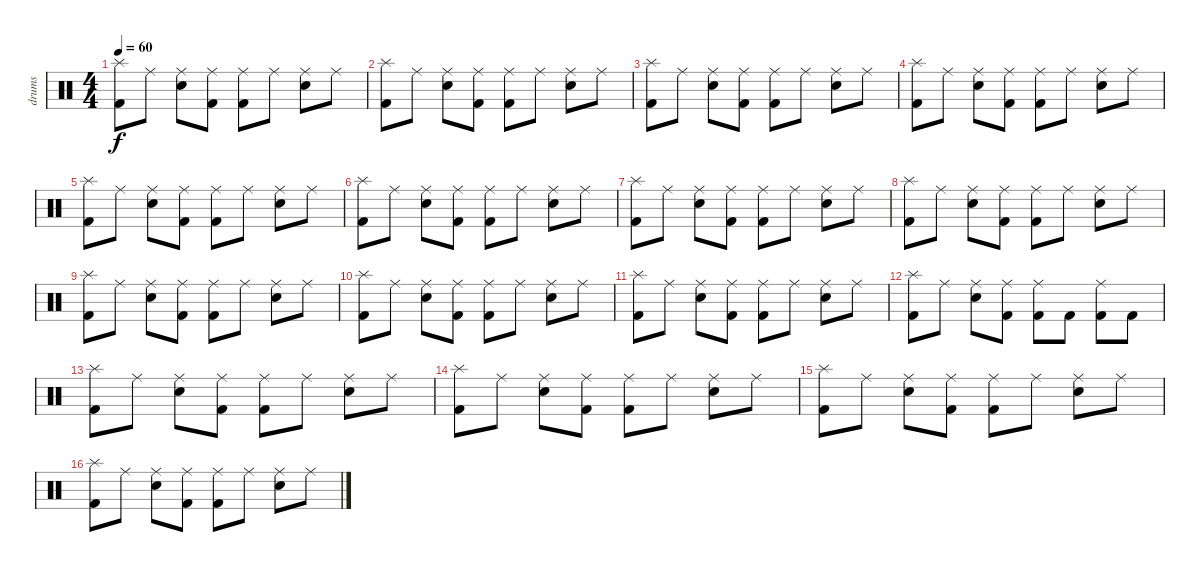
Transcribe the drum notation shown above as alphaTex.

\track ("drums" "drums") {instrument percussion}
\staff {score}
\articulation defaults
\ts (4 4)
\tempo 60
\clef neutral
\ks c
("Splash (hit)" "Kick (hit) 2").8{dy f} "Ride (middle)".8 ("Ride (middle)" "Electric Snare (hit)").8 ("Ride (middle)" "Kick (hit) 2").8 ("Ride (middle)" "Kick (hit) 2").8 "Ride (middle)".8 ("Ride (middle)" "Electric Snare (hit)").8 "Ride (middle)".8 |
("Splash (hit)" "Kick (hit) 2").8 "Ride (middle)".8 ("Ride (middle)" "Electric Snare (hit)").8 ("Ride (middle)" "Kick (hit) 2").8 ("Ride (middle)" "Kick (hit) 2").8 "Ride (middle)".8 ("Ride (middle)" "Electric Snare (hit)").8 "Ride (middle)".8 |
("Splash (hit)" "Kick (hit) 2").8 "Ride (middle)".8 ("Ride (middle)" "Electric Snare (hit)").8 ("Ride (middle)" "Kick (hit) 2").8 ("Ride (middle)" "Kick (hit) 2").8 "Ride (middle)".8 ("Ride (middle)" "Electric Snare (hit)").8 "Ride (middle)".8 |
("Splash (hit)" "Kick (hit) 2").8 "Ride (middle)".8 ("Ride (middle)" "Electric Snare (hit)").8 ("Ride (middle)" "Kick (hit) 2").8 ("Ride (middle)" "Kick (hit) 2").8 "Ride (middle)".8 ("Ride (middle)" "Electric Snare (hit)").8 "Ride (middle)".8 |
("Splash (hit)" "Kick (hit) 2").8 "Ride (middle)".8 ("Ride (middle)" "Electric Snare (hit)").8 ("Ride (middle)" "Kick (hit) 2").8 ("Ride (middle)" "Kick (hit) 2").8 "Ride (middle)".8 ("Ride (middle)" "Electric Snare (hit)").8 "Ride (middle)".8 |
("Splash (hit)" "Kick (hit) 2").8 "Ride (middle)".8 ("Ride (middle)" "Electric Snare (hit)").8 ("Ride (middle)" "Kick (hit) 2").8 ("Ride (middle)" "Kick (hit) 2").8 "Ride (middle)".8 ("Ride (middle)" "Electric Snare (hit)").8 "Ride (middle)".8 |
("Splash (hit)" "Kick (hit) 2").8 "Ride (middle)".8 ("Ride (middle)" "Electric Snare (hit)").8 ("Ride (middle)" "Kick (hit) 2").8 ("Ride (middle)" "Kick (hit) 2").8 "Ride (middle)".8 ("Ride (middle)" "Electric Snare (hit)").8 "Ride (middle)".8 |
("Splash (hit)" "Kick (hit) 2").8 "Ride (middle)".8 ("Ride (middle)" "Electric Snare (hit)").8 ("Ride (middle)" "Kick (hit) 2").8 ("Ride (middle)" "Kick (hit) 2").8 "Ride (middle)".8 ("Ride (middle)" "Electric Snare (hit)").8 "Ride (middle)".8 |
("Splash (hit)" "Kick (hit) 2").8 "Ride (middle)".8 ("Ride (middle)" "Electric Snare (hit)").8 ("Ride (middle)" "Kick (hit) 2").8 ("Ride (middle)" "Kick (hit) 2").8 "Ride (middle)".8 ("Ride (middle)" "Electric Snare (hit)").8 "Ride (middle)".8 |
("Splash (hit)" "Kick (hit) 2").8 "Ride (middle)".8 ("Ride (middle)" "Electric Snare (hit)").8 ("Ride (middle)" "Kick (hit) 2").8 ("Ride (middle)" "Kick (hit) 2").8 "Ride (middle)".8 ("Ride (middle)" "Electric Snare (hit)").8 "Ride (middle)".8 |
("Splash (hit)" "Kick (hit) 2").8 "Ride (middle)".8 ("Ride (middle)" "Electric Snare (hit)").8 ("Ride (middle)" "Kick (hit) 2").8 ("Ride (middle)" "Kick (hit) 2").8 "Ride (middle)".8 ("Ride (middle)" "Electric Snare (hit)").8 "Ride (middle)".8 |
("Splash (hit)" "Kick (hit) 2").8 "Ride (middle)".8 ("Ride (middle)" "Electric Snare (hit)").8 ("Ride (middle)" "Kick (hit) 2").8 ("Ride (middle)" "Kick (hit) 2").8 "Kick (hit) 2".8 ("Ride (middle)" "Kick (hit) 2").8 "Kick (hit) 2".8 |
("Splash (hit)" "Kick (hit) 2").8 "Ride (middle)".8 ("Ride (middle)" "Electric Snare (hit)").8 ("Ride (middle)" "Kick (hit) 2").8 ("Ride (middle)" "Kick (hit) 2").8 "Ride (middle)".8 ("Ride (middle)" "Electric Snare (hit)").8 "Ride (middle)".8 |
("Splash (hit)" "Kick (hit) 2").8 "Ride (middle)".8 ("Ride (middle)" "Electric Snare (hit)").8 ("Ride (middle)" "Kick (hit) 2").8 ("Ride (middle)" "Kick (hit) 2").8 "Ride (middle)".8 ("Ride (middle)" "Electric Snare (hit)").8 "Ride (middle)".8 |
("Splash (hit)" "Kick (hit) 2").8 "Ride (middle)".8 ("Ride (middle)" "Electric Snare (hit)").8 ("Ride (middle)" "Kick (hit) 2").8 ("Ride (middle)" "Kick (hit) 2").8 "Ride (middle)".8 ("Ride (middle)" "Electric Snare (hit)").8 "Ride (middle)".8 |
("Splash (hit)" "Kick (hit) 2").8 "Ride (middle)".8 ("Ride (middle)" "Electric Snare (hit)").8 ("Ride (middle)" "Kick (hit) 2").8 ("Ride (middle)" "Kick (hit) 2").8 "Ride (middle)".8 ("Ride (middle)" "Electric Snare (hit)").8 "Ride (middle)".8
